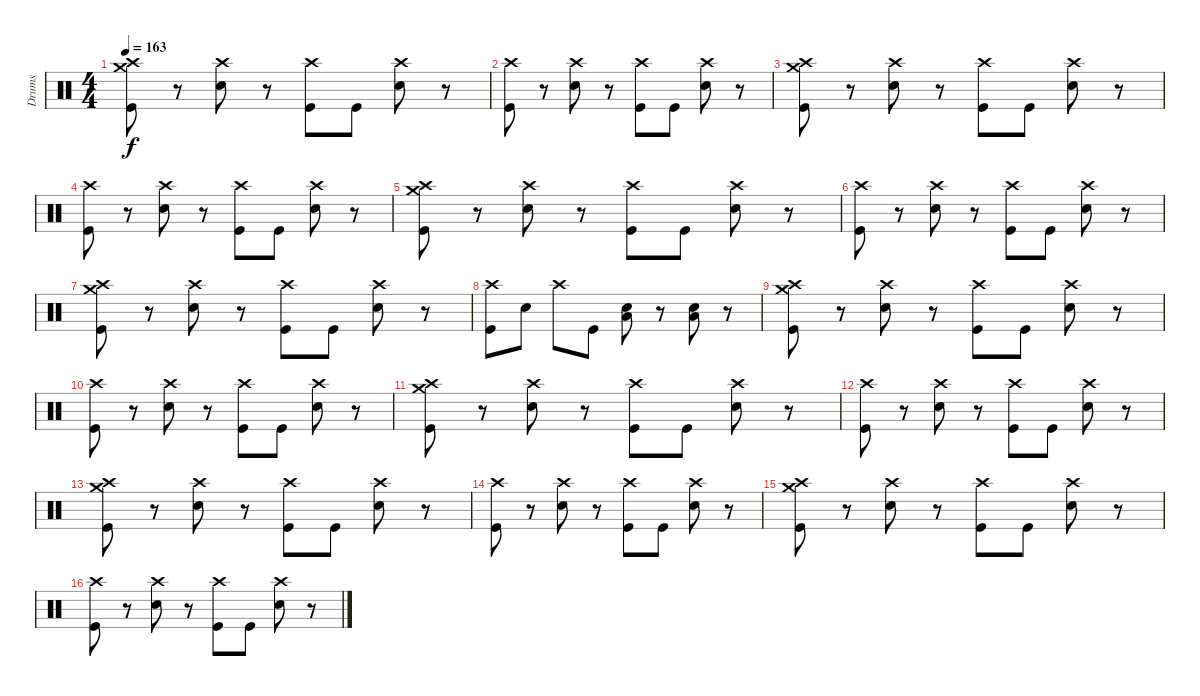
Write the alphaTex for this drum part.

\track ("Drums" "Drums") {instrument percussion}
\staff {score}
\articulation defaults
\ts (4 4)
\tempo 163
\clef neutral
\ks c
("Crash high (hit)" "Crash medium (hit)" "Kick (hit)").8{dy f} r.8 ("Crash high (hit)" "Electric Snare (hit)").8 r.8 ("Crash high (hit)" "Kick (hit)").8 "Kick (hit)".8 ("Crash high (hit)" "Electric Snare (hit)").8 r.8 |
("Crash high (hit)" "Kick (hit)").8 r.8 ("Crash high (hit)" "Electric Snare (hit)").8 r.8 ("Crash high (hit)" "Kick (hit)").8 "Kick (hit)".8 ("Crash high (hit)" "Electric Snare (hit)").8 r.8 |
("Crash high (hit)" "Crash medium (hit)" "Kick (hit)").8 r.8 ("Crash high (hit)" "Electric Snare (hit)").8 r.8 ("Crash high (hit)" "Kick (hit)").8 "Kick (hit)".8 ("Crash high (hit)" "Electric Snare (hit)").8 r.8 |
("Crash high (hit)" "Kick (hit)").8 r.8 ("Crash high (hit)" "Electric Snare (hit)").8 r.8 ("Crash high (hit)" "Kick (hit)").8 "Kick (hit)".8 ("Crash high (hit)" "Electric Snare (hit)").8 r.8 |
("Crash high (hit)" "Crash medium (hit)" "Kick (hit)").8 r.8 ("Crash high (hit)" "Electric Snare (hit)").8 r.8 ("Crash high (hit)" "Kick (hit)").8 "Kick (hit)".8 ("Crash high (hit)" "Electric Snare (hit)").8 r.8 |
("Crash high (hit)" "Kick (hit)").8 r.8 ("Crash high (hit)" "Electric Snare (hit)").8 r.8 ("Crash high (hit)" "Kick (hit)").8 "Kick (hit)".8 ("Crash high (hit)" "Electric Snare (hit)").8 r.8 |
("Crash high (hit)" "Crash medium (hit)" "Kick (hit)").8 r.8 ("Crash high (hit)" "Electric Snare (hit)").8 r.8 ("Crash high (hit)" "Kick (hit)").8 "Kick (hit)".8 ("Crash high (hit)" "Electric Snare (hit)").8 r.8 |
("Crash high (hit)" "Kick (hit)").8 "Electric Snare (hit)".8 "Crash high (hit)".8 "Kick (hit)".8 ("Electric Snare (hit)" "Low Tom (hit)").8 r.8 ("Electric Snare (hit)" "Low Tom (hit)").8 r.8 |
("Crash high (hit)" "Crash medium (hit)" "Kick (hit)").8 r.8 ("Crash high (hit)" "Electric Snare (hit)").8 r.8 ("Crash high (hit)" "Kick (hit)").8 "Kick (hit)".8 ("Crash high (hit)" "Electric Snare (hit)").8 r.8 |
("Crash high (hit)" "Kick (hit)").8 r.8 ("Crash high (hit)" "Electric Snare (hit)").8 r.8 ("Crash high (hit)" "Kick (hit)").8 "Kick (hit)".8 ("Crash high (hit)" "Electric Snare (hit)").8 r.8 |
("Crash high (hit)" "Crash medium (hit)" "Kick (hit)").8 r.8 ("Crash high (hit)" "Electric Snare (hit)").8 r.8 ("Crash high (hit)" "Kick (hit)").8 "Kick (hit)".8 ("Crash high (hit)" "Electric Snare (hit)").8 r.8 |
("Crash high (hit)" "Kick (hit)").8 r.8 ("Crash high (hit)" "Electric Snare (hit)").8 r.8 ("Crash high (hit)" "Kick (hit)").8 "Kick (hit)".8 ("Crash high (hit)" "Electric Snare (hit)").8 r.8 |
("Crash high (hit)" "Crash medium (hit)" "Kick (hit)").8 r.8 ("Crash high (hit)" "Electric Snare (hit)").8 r.8 ("Crash high (hit)" "Kick (hit)").8 "Kick (hit)".8 ("Crash high (hit)" "Electric Snare (hit)").8 r.8 |
("Crash high (hit)" "Kick (hit)").8 r.8 ("Crash high (hit)" "Electric Snare (hit)").8 r.8 ("Crash high (hit)" "Kick (hit)").8 "Kick (hit)".8 ("Crash high (hit)" "Electric Snare (hit)").8 r.8 |
("Crash high (hit)" "Crash medium (hit)" "Kick (hit)").8 r.8 ("Crash high (hit)" "Electric Snare (hit)").8 r.8 ("Crash high (hit)" "Kick (hit)").8 "Kick (hit)".8 ("Crash high (hit)" "Electric Snare (hit)").8 r.8 |
("Crash high (hit)" "Kick (hit)").8 r.8 ("Crash high (hit)" "Electric Snare (hit)").8 r.8 ("Crash high (hit)" "Kick (hit)").8 "Kick (hit)".8 ("Crash high (hit)" "Electric Snare (hit)").8 r.8
